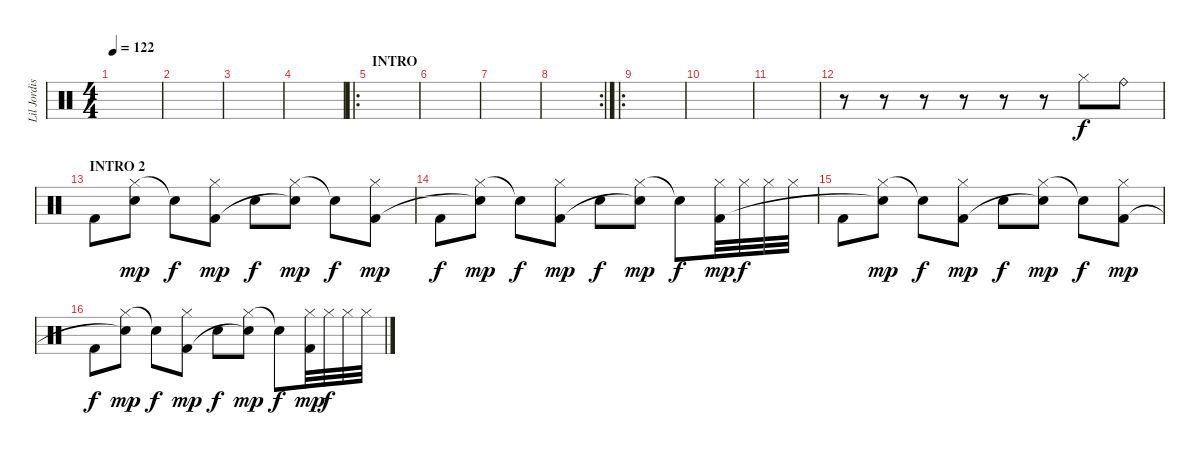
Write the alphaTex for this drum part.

\track ("Lil Jordison" "Lil Jordis") {instrument percussion}
\staff {score}
\articulation defaults
\ts (4 4)
\tempo 122
\clef neutral
\ks c
|
|
|
|
\ro
\section ("" "INTRO")
|
|
|
\rc 2
|
\ro
|
|
|
r.8 r.8 r.8 r.8 r.8 r.8 "Hi-Hat (closed)".8 "Ride (bell)".8 |
\section ("" "INTRO 2")
"Kick (hit) 2".8 ("Hi-Hat (closed)" "Snare (hit)").8{dy mp} "Snare (hit)"{t}.8{dy f} ("Hi-Hat (closed)" "Kick (hit) 2").8{dy mp} "Electric Snare (hit)".8{dy f} ("Hi-Hat (closed)" "Snare (hit)"{t}).8{dy mp} "Snare (hit)"{t}.8{dy f} ("Hi-Hat (closed)" "Kick (hit) 2").8{dy mp} |
"Kick (hit) 2".8{dy f} ("Hi-Hat (closed)" "Snare (hit)"{t}).8{dy mp} "Snare (hit)"{t}.8{dy f} ("Hi-Hat (closed)" "Kick (hit) 2").8{dy mp} "Electric Snare (hit)".8{dy f} ("Hi-Hat (closed)" "Snare (hit)"{t}).8{dy mp} "Snare (hit)"{t}.8{dy f} ("Hi-Hat (closed)" "Kick (hit) 2").32{dy mp} "Hi-Hat (closed)".32{dy f} "Hi-Hat (closed)".32 "Hi-Hat (closed)".32 |
"Kick (hit) 2".8 ("Hi-Hat (closed)" "Snare (hit)"{t}).8{dy mp} "Snare (hit)"{t}.8{dy f} ("Hi-Hat (closed)" "Kick (hit) 2").8{dy mp} "Electric Snare (hit)".8{dy f} ("Hi-Hat (closed)" "Snare (hit)"{t}).8{dy mp} "Snare (hit)"{t}.8{dy f} ("Hi-Hat (closed)" "Kick (hit) 2").8{dy mp} |
"Kick (hit) 2".8{dy f} ("Hi-Hat (closed)" "Snare (hit)"{t}).8{dy mp} "Snare (hit)"{t}.8{dy f} ("Hi-Hat (closed)" "Kick (hit) 2").8{dy mp} "Electric Snare (hit)".8{dy f} ("Hi-Hat (closed)" "Snare (hit)"{t}).8{dy mp} "Snare (hit)"{t}.8{dy f} ("Hi-Hat (closed)" "Kick (hit) 2").32{dy mp} "Hi-Hat (closed)".32{dy f} "Hi-Hat (closed)".32 "Hi-Hat (closed)".32
